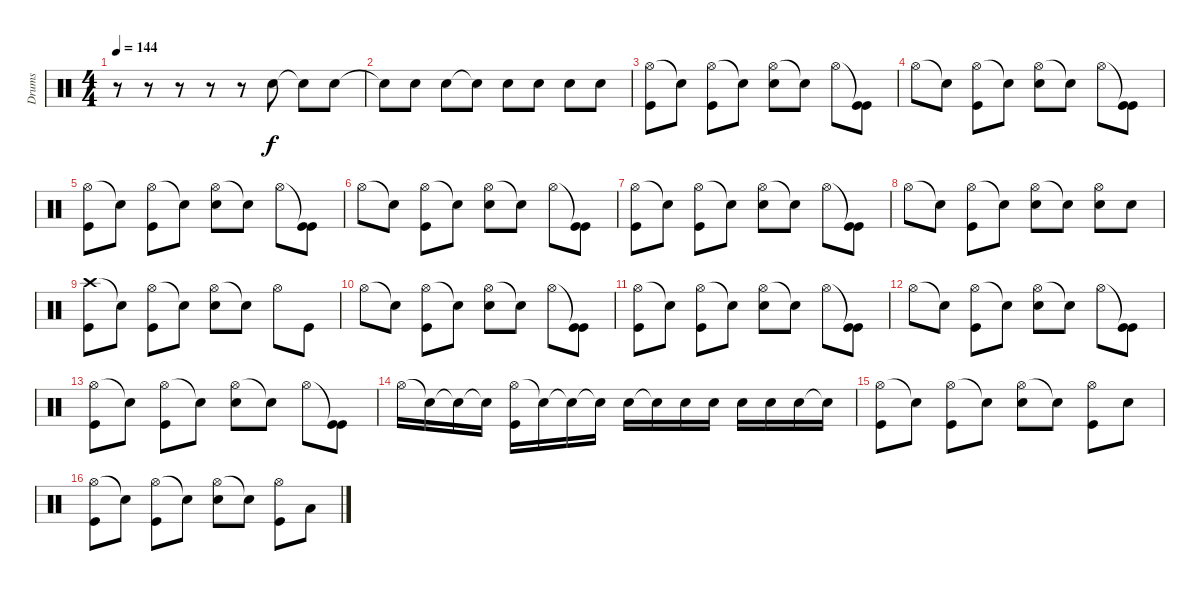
\track ("Drums               " "Drums     ") {instrument percussion}
\staff {score}
\articulation defaults
\ts (4 4)
\tempo 144
\clef neutral
\ks c
r.8{dy f} r.8 r.8 r.8 r.8 "Snare (hit)"{t}.8 "Snare (hit)"{t}.8 "Snare (hit) 2".8 |
"Snare (hit) 2"{t}.8 "Snare (hit) 2".8 "Snare (hit) 2".8 "Snare (hit)"{t}.8 "Snare (hit) 2".8 "Snare (hit) 2".8 "Snare (hit) 2".8 "Snare (hit) 2".8 |
("Hi-Hat (open)" "Kick (hit)").8 "Snare (hit)"{t}.8 ("Hi-Hat (open)" "Kick (hit)").8 "Snare (hit)"{t}.8 ("Hi-Hat (open)" "Snare (hit) 2").8 "Snare (hit)"{t}.8 "Hi-Hat (open)".8 ("Kick (hit)"{t} "Kick (hit)").8 |
"Hi-Hat (open)".8 "Snare (hit)"{t}.8 ("Hi-Hat (open)" "Kick (hit)").8 "Snare (hit)"{t}.8 ("Hi-Hat (open)" "Snare (hit) 2").8 "Snare (hit)"{t}.8 "Hi-Hat (open)".8 ("Kick (hit)"{t} "Kick (hit)").8 |
("Hi-Hat (open)" "Kick (hit)").8 "Snare (hit)"{t}.8 ("Hi-Hat (open)" "Kick (hit)").8 "Snare (hit)"{t}.8 ("Hi-Hat (open)" "Snare (hit) 2").8 "Snare (hit)"{t}.8 "Hi-Hat (open)".8 ("Kick (hit)"{t} "Kick (hit)").8 |
"Hi-Hat (open)".8 "Snare (hit)"{t}.8 ("Hi-Hat (open)" "Kick (hit)").8 "Snare (hit)"{t}.8 ("Hi-Hat (open)" "Snare (hit) 2").8 "Snare (hit)"{t}.8 "Hi-Hat (open)".8 ("Kick (hit)"{t} "Kick (hit)").8 |
("Hi-Hat (open)" "Kick (hit)").8 "Snare (hit)"{t}.8 ("Hi-Hat (open)" "Kick (hit)").8 "Snare (hit)"{t}.8 ("Hi-Hat (open)" "Snare (hit) 2").8 "Snare (hit)"{t}.8 "Hi-Hat (open)".8 ("Kick (hit)"{t} "Kick (hit)").8 |
"Hi-Hat (open)".8 "Snare (hit)"{t}.8 ("Hi-Hat (open)" "Kick (hit)").8 "Snare (hit)"{t}.8 ("Hi-Hat (open)" "Snare (hit) 2").8 "Snare (hit)"{t}.8 ("Hi-Hat (open)" "Snare (hit) 2").8 "Snare (hit) 2".8 |
("Crash high (hit)" "Kick (hit)").8 "Snare (hit)"{t}.8 ("Hi-Hat (open)" "Kick (hit)").8 "Snare (hit)"{t}.8 ("Hi-Hat (open)" "Snare (hit) 2").8 "Snare (hit)"{t}.8 "Hi-Hat (open)".8 "Kick (hit)".8 |
"Hi-Hat (open)".8 "Snare (hit)"{t}.8 ("Hi-Hat (open)" "Kick (hit)").8 "Snare (hit)"{t}.8 ("Hi-Hat (open)" "Snare (hit) 2").8 "Snare (hit)"{t}.8 "Hi-Hat (open)".8 ("Kick (hit)"{t} "Kick (hit)").8 |
("Hi-Hat (open)" "Kick (hit)").8 "Snare (hit)"{t}.8 ("Hi-Hat (open)" "Kick (hit)").8 "Snare (hit)"{t}.8 ("Hi-Hat (open)" "Snare (hit) 2").8 "Snare (hit)"{t}.8 "Hi-Hat (open)".8 ("Kick (hit)"{t} "Kick (hit)").8 |
"Hi-Hat (open)".8 "Snare (hit)"{t}.8 ("Hi-Hat (open)" "Kick (hit)").8 "Snare (hit)"{t}.8 ("Hi-Hat (open)" "Snare (hit) 2").8 "Snare (hit)"{t}.8 "Hi-Hat (open)".8 ("Kick (hit)"{t} "Kick (hit)").8 |
("Hi-Hat (open)" "Kick (hit)").8 "Snare (hit)"{t}.8 ("Hi-Hat (open)" "Kick (hit)").8 "Snare (hit)"{t}.8 ("Hi-Hat (open)" "Snare (hit) 2").8 "Snare (hit)"{t}.8 "Hi-Hat (open)".8 ("Kick (hit)"{t} "Kick (hit)").8 |
"Hi-Hat (open)".16 "Snare (hit)"{t}.16 "Snare (hit)"{t}.16 "Snare (hit)"{t}.16 ("Hi-Hat (open)" "Kick (hit)").16 "Snare (hit)"{t}.16 "Snare (hit)"{t}.16 "Snare (hit)"{t}.16 "Snare (hit) 2".16 "Snare (hit)"{t}.16 "Snare (hit) 2".16 "Snare (hit) 2".16 "Snare (hit) 2".16 "Snare (hit) 2".16 "Snare (hit) 2".16 "Snare (hit)"{t}.16 |
("Hi-Hat (open)" "Kick (hit)").8 "Snare (hit)"{t}.8 ("Hi-Hat (open)" "Kick (hit)").8 "Snare (hit)"{t}.8 ("Hi-Hat (open)" "Snare (hit) 2").8 "Snare (hit)"{t}.8 ("Hi-Hat (open)" "Kick (hit)").8 "Snare (hit) 2".8 |
("Hi-Hat (open)" "Kick (hit)").8 "Snare (hit)"{t}.8 ("Hi-Hat (open)" "Kick (hit)").8 "Snare (hit)"{t}.8 ("Hi-Hat (open)" "Snare (hit) 2").8 "Snare (hit)"{t}.8 ("Hi-Hat (open)" "Kick (hit)").8 "Low Tom (hit)".8
